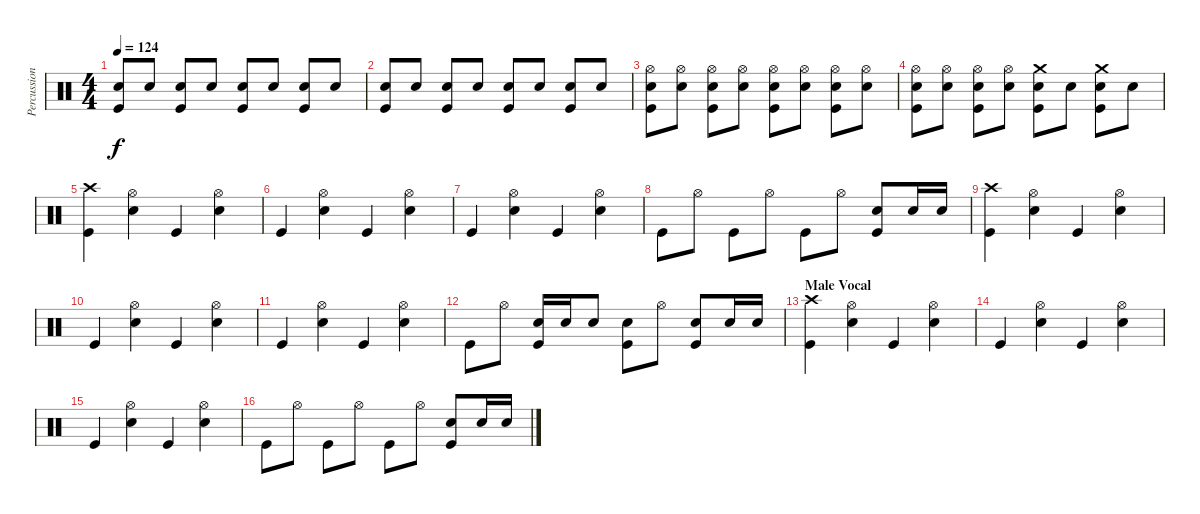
\track ("Percussion" "Percussion") {instrument percussion}
\staff {score}
\articulation defaults
\ts (4 4)
\tempo 124
\clef neutral
\ks c
("Snare (hit) 2" "Kick (hit)").8{dy f} "Snare (hit) 2".8 ("Snare (hit) 2" "Kick (hit)").8 "Snare (hit) 2".8 ("Snare (hit) 2" "Kick (hit)").8 "Snare (hit) 2".8 ("Snare (hit) 2" "Kick (hit)").8 "Snare (hit) 2".8 |
("Snare (hit) 2" "Kick (hit)").8 "Snare (hit) 2".8 ("Snare (hit) 2" "Kick (hit)").8 "Snare (hit) 2".8 ("Snare (hit) 2" "Kick (hit)").8 "Snare (hit) 2".8 ("Snare (hit) 2" "Kick (hit)").8 "Snare (hit) 2".8 |
("Hi-Hat (open)" "Snare (hit) 2" "Kick (hit)").8 ("Hi-Hat (open)" "Snare (hit) 2").8 ("Hi-Hat (open)" "Snare (hit) 2" "Kick (hit)").8 ("Hi-Hat (open)" "Snare (hit) 2").8 ("Hi-Hat (open)" "Snare (hit) 2" "Kick (hit)").8 ("Hi-Hat (open)" "Snare (hit) 2").8 ("Hi-Hat (open)" "Snare (hit) 2" "Kick (hit)").8 ("Hi-Hat (open)" "Snare (hit) 2").8 |
("Hi-Hat (open)" "Snare (hit) 2" "Kick (hit)").8 ("Hi-Hat (open)" "Snare (hit) 2").8 ("Hi-Hat (open)" "Snare (hit) 2" "Kick (hit)").8 ("Hi-Hat (open)" "Snare (hit) 2").8 ("Crash medium (hit)" "Snare (hit) 2" "Kick (hit)").8 "Snare (hit) 2".8 ("Crash medium (hit)" "Snare (hit) 2" "Kick (hit)").8 "Snare (hit) 2".8 |
("Crash high (hit)" "Kick (hit)").4 ("Hi-Hat (open)" "Snare (hit) 2").4 "Kick (hit)".4 ("Hi-Hat (open)" "Snare (hit) 2").4 |
"Kick (hit)".4 ("Hi-Hat (open)" "Snare (hit) 2").4 "Kick (hit)".4 ("Hi-Hat (open)" "Snare (hit) 2").4 |
"Kick (hit)".4 ("Hi-Hat (open)" "Snare (hit) 2").4 "Kick (hit)".4 ("Hi-Hat (open)" "Snare (hit) 2").4 |
"Kick (hit)".8 "Hi-Hat (open)".8 "Kick (hit)".8 "Hi-Hat (open)".8 "Kick (hit)".8 "Hi-Hat (open)".8 ("Snare (hit) 2" "Kick (hit)").8 "Snare (hit) 2".16 "Snare (hit) 2".16 |
("Crash high (hit)" "Kick (hit)").4 ("Hi-Hat (open)" "Snare (hit) 2").4 "Kick (hit)".4 ("Hi-Hat (open)" "Snare (hit) 2").4 |
"Kick (hit)".4 ("Hi-Hat (open)" "Snare (hit) 2").4 "Kick (hit)".4 ("Hi-Hat (open)" "Snare (hit) 2").4 |
"Kick (hit)".4 ("Hi-Hat (open)" "Snare (hit) 2").4 "Kick (hit)".4 ("Hi-Hat (open)" "Snare (hit) 2").4 |
"Kick (hit)".8 "Hi-Hat (open)".8 ("Snare (hit) 2" "Kick (hit)").16 "Snare (hit) 2".16 "Snare (hit) 2".8 ("Snare (hit) 2" "Kick (hit)").8 "Hi-Hat (open)".8 ("Snare (hit) 2" "Kick (hit)").8 "Snare (hit) 2".16 "Snare (hit) 2".16 |
\section ("" "Male Vocal")
("Crash high (hit)" "Kick (hit)").4 ("Hi-Hat (open)" "Snare (hit) 2").4 "Kick (hit)".4 ("Hi-Hat (open)" "Snare (hit) 2").4 |
"Kick (hit)".4 ("Hi-Hat (open)" "Snare (hit) 2").4 "Kick (hit)".4 ("Hi-Hat (open)" "Snare (hit) 2").4 |
"Kick (hit)".4 ("Hi-Hat (open)" "Snare (hit) 2").4 "Kick (hit)".4 ("Hi-Hat (open)" "Snare (hit) 2").4 |
"Kick (hit)".8 "Hi-Hat (open)".8 "Kick (hit)".8 "Hi-Hat (open)".8 "Kick (hit)".8 "Hi-Hat (open)".8 ("Snare (hit) 2" "Kick (hit)").8 "Snare (hit) 2".16 "Snare (hit) 2".16
